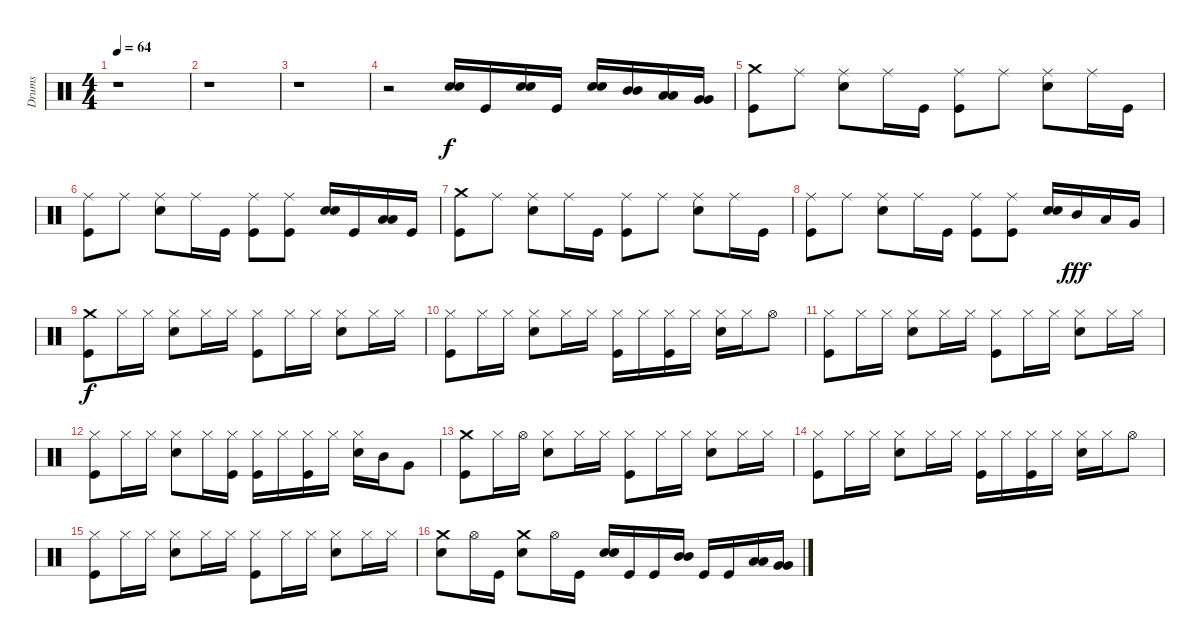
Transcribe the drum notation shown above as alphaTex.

\track ("Drums" "Drums") {instrument percussion}
\staff {score}
\articulation defaults
\ts (4 4)
\tempo 64
\clef neutral
\ks c
r.1{dy f} |
r.1 |
r.1 |
r.2 ("Snare (hit) 2" "Snare (hit) 2").16 "Kick (hit)".16 ("Snare (hit) 2" "Snare (hit) 2").16 "Kick (hit)".16 ("Snare (hit) 2" "Snare (hit) 2").16 ("Mid Tom (hit)" "Mid Tom (hit)").16 ("Low Tom (hit)" "Low Tom (hit)").16 ("Very Low Tom (hit)" "Very Low Tom (hit)").16 |
("Crash medium (hit)" "Kick (hit)").8 "Ride (middle)".8 ("Ride (middle)" "Snare (hit) 2").8 "Ride (middle)".16 "Kick (hit)".16 ("Ride (middle)" "Kick (hit)").8 "Ride (middle)".8 ("Ride (middle)" "Snare (hit) 2").8 "Ride (middle)".16 "Kick (hit)".16 |
("Ride (middle)" "Kick (hit)").8 "Ride (middle)".8 ("Ride (middle)" "Snare (hit) 2").8 "Ride (middle)".16 "Kick (hit)".16 ("Ride (middle)" "Kick (hit)").8 ("Ride (middle)" "Kick (hit)").8 ("Snare (hit) 2" "Snare (hit) 2").16 "Kick (hit)".16 ("Low Tom (hit)" "Low Tom (hit)").16 "Kick (hit)".16 |
("Crash medium (hit)" "Kick (hit)").8 "Ride (middle)".8 ("Ride (middle)" "Snare (hit) 2").8 "Ride (middle)".16 "Kick (hit)".16 ("Ride (middle)" "Kick (hit)").8 "Ride (middle)".8 ("Ride (middle)" "Snare (hit) 2").8 "Ride (middle)".16 "Kick (hit)".16 |
("Ride (middle)" "Kick (hit)").8 "Ride (middle)".8 ("Ride (middle)" "Snare (hit) 2").8 "Ride (middle)".16 "Kick (hit)".16 ("Ride (middle)" "Kick (hit)").8 ("Ride (middle)" "Kick (hit)").8 ("Snare (hit) 2" "Snare (hit) 2").16 "Mid Tom (hit)".16{dy fff} "Low Tom (hit)".16 "Very Low Tom (hit)".16 |
("Crash medium (hit)" "Kick (hit)").8{dy f} "Hi-Hat (closed)".16 "Hi-Hat (closed)".16 ("Hi-Hat (closed)" "Snare (hit) 2").8 "Hi-Hat (closed)".16 "Hi-Hat (closed)".16 ("Hi-Hat (closed)" "Kick (hit)").8 "Hi-Hat (closed)".16 "Hi-Hat (closed)".16 ("Hi-Hat (closed)" "Snare (hit) 2").8 "Hi-Hat (closed)".16 "Hi-Hat (closed)".16 |
("Hi-Hat (closed)" "Kick (hit)").8 "Hi-Hat (closed)".16 "Hi-Hat (closed)".16 ("Hi-Hat (closed)" "Snare (hit) 2").8 "Hi-Hat (closed)".16 "Hi-Hat (closed)".16 ("Hi-Hat (closed)" "Kick (hit)").16 "Hi-Hat (closed)".16 ("Hi-Hat (closed)" "Kick (hit)").16 "Hi-Hat (closed)".16 ("Hi-Hat (closed)" "Snare (hit) 2").16 "Hi-Hat (closed)".16 "Hi-Hat (open)".8 |
("Hi-Hat (closed)" "Kick (hit)").8 "Hi-Hat (closed)".16 "Hi-Hat (closed)".16 ("Hi-Hat (closed)" "Snare (hit) 2").8 "Hi-Hat (closed)".16 "Hi-Hat (closed)".16 ("Hi-Hat (closed)" "Kick (hit)").8 "Hi-Hat (closed)".16 "Hi-Hat (closed)".16 ("Hi-Hat (closed)" "Snare (hit) 2").8 "Hi-Hat (closed)".16 "Hi-Hat (closed)".16 |
("Hi-Hat (closed)" "Kick (hit)").8 "Hi-Hat (closed)".16 "Hi-Hat (closed)".16 ("Hi-Hat (closed)" "Snare (hit) 2").8 "Hi-Hat (closed)".16 ("Hi-Hat (closed)" "Kick (hit)").16 ("Hi-Hat (closed)" "Kick (hit)").16 "Hi-Hat (closed)".16 ("Hi-Hat (closed)" "Kick (hit)").16 "Hi-Hat (closed)".16 ("Hi-Hat (closed)" "Snare (hit) 2").16 "Mid Tom (hit)".16 "Very Low Tom (hit)".8 |
("Crash medium (hit)" "Kick (hit)").8 "Hi-Hat (closed)".16 "Hi-Hat (open)".16 ("Hi-Hat (closed)" "Snare (hit) 2").8 "Hi-Hat (closed)".16 "Hi-Hat (closed)".16 ("Hi-Hat (closed)" "Kick (hit)").8 "Hi-Hat (closed)".16 "Hi-Hat (closed)".16 ("Hi-Hat (closed)" "Snare (hit) 2").8 "Hi-Hat (closed)".16 "Hi-Hat (closed)".16 |
("Hi-Hat (closed)" "Kick (hit)").8 "Hi-Hat (closed)".16 "Hi-Hat (closed)".16 ("Hi-Hat (closed)" "Snare (hit) 2").8 "Hi-Hat (closed)".16 "Hi-Hat (closed)".16 ("Hi-Hat (closed)" "Kick (hit)").16 "Hi-Hat (closed)".16 ("Hi-Hat (closed)" "Kick (hit)").16 "Hi-Hat (closed)".16 ("Hi-Hat (closed)" "Snare (hit) 2").16 "Hi-Hat (closed)".16 "Hi-Hat (open)".8 |
("Hi-Hat (closed)" "Kick (hit)").8 "Hi-Hat (closed)".16 "Hi-Hat (closed)".16 ("Hi-Hat (closed)" "Snare (hit) 2").8 "Hi-Hat (closed)".16 "Hi-Hat (closed)".16 ("Hi-Hat (closed)" "Kick (hit)").8 "Hi-Hat (closed)".16 "Hi-Hat (closed)".16 ("Hi-Hat (closed)" "Snare (hit) 2").8 "Hi-Hat (closed)".16 "Hi-Hat (closed)".16 |
("Crash medium (hit)" "Snare (hit) 2").8 "Hi-Hat (open)".16 "Kick (hit)".16 ("Crash medium (hit)" "Snare (hit) 2").8 "Hi-Hat (open)".16 "Kick (hit)".16 ("Snare (hit) 2" "Snare (hit) 2").16 "Kick (hit)".16 "Kick (hit)".16 ("Mid Tom (hit)" "Mid Tom (hit)").16 "Kick (hit)".16 "Kick (hit)".16 ("Low Tom (hit)" "Low Tom (hit)").16 ("Very Low Tom (hit)" "Very Low Tom (hit)").16
